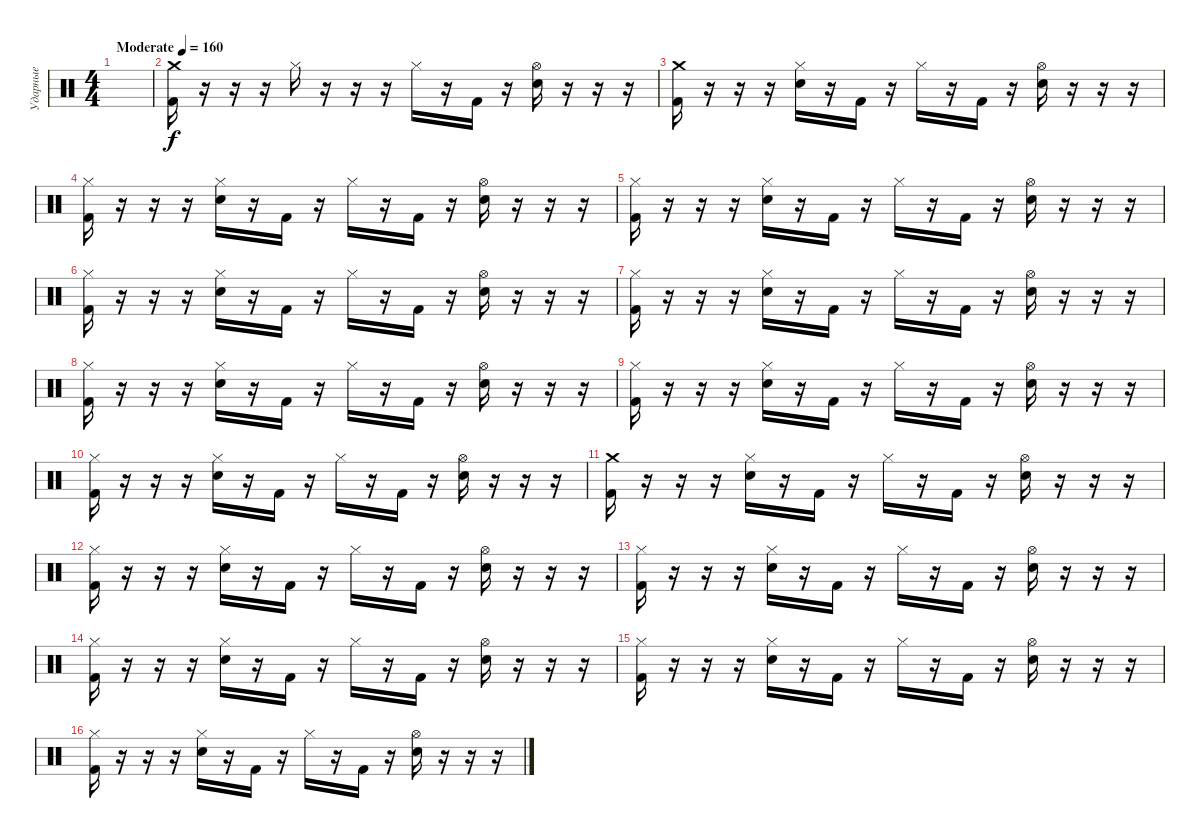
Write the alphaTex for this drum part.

\track ("Ударные" "Ударные") {instrument percussion}
\staff {score}
\articulation defaults
\ts (4 4)
\tempo (160 "Moderate")
\clef neutral
\ks c
|
("Crash medium (hit)" "Kick (hit) 2").16 r.16 r.16 r.16 "Hi-Hat (closed)".16 r.16 r.16 r.16 "Hi-Hat (closed)".16 r.16 "Kick (hit) 2".16 r.16 ("Hi-Hat (open)" "Electric Snare (hit)").16 r.16 r.16 r.16 |
("Crash medium (hit)" "Kick (hit) 2").16 r.16 r.16 r.16 ("Hi-Hat (closed)" "Electric Snare (hit)").16 r.16 "Kick (hit) 2".16 r.16 "Hi-Hat (closed)".16 r.16 "Kick (hit) 2".16 r.16 ("Hi-Hat (open)" "Electric Snare (hit)").16 r.16 r.16 r.16 |
("Hi-Hat (closed)" "Kick (hit) 2").16 r.16 r.16 r.16 ("Hi-Hat (closed)" "Electric Snare (hit)").16 r.16 "Kick (hit) 2".16 r.16 "Hi-Hat (closed)".16 r.16 "Kick (hit) 2".16 r.16 ("Hi-Hat (open)" "Electric Snare (hit)").16 r.16 r.16 r.16 |
("Hi-Hat (closed)" "Kick (hit) 2").16 r.16 r.16 r.16 ("Hi-Hat (closed)" "Electric Snare (hit)").16 r.16 "Kick (hit) 2".16 r.16 "Hi-Hat (closed)".16 r.16 "Kick (hit) 2".16 r.16 ("Hi-Hat (open)" "Electric Snare (hit)").16 r.16 r.16 r.16 |
("Hi-Hat (closed)" "Kick (hit) 2").16 r.16 r.16 r.16 ("Hi-Hat (closed)" "Electric Snare (hit)").16 r.16 "Kick (hit) 2".16 r.16 "Hi-Hat (closed)".16 r.16 "Kick (hit) 2".16 r.16 ("Hi-Hat (open)" "Electric Snare (hit)").16 r.16 r.16 r.16 |
("Hi-Hat (closed)" "Kick (hit) 2").16 r.16 r.16 r.16 ("Hi-Hat (closed)" "Electric Snare (hit)").16 r.16 "Kick (hit) 2".16 r.16 "Hi-Hat (closed)".16 r.16 "Kick (hit) 2".16 r.16 ("Hi-Hat (open)" "Electric Snare (hit)").16 r.16 r.16 r.16 |
("Hi-Hat (closed)" "Kick (hit) 2").16 r.16 r.16 r.16 ("Hi-Hat (closed)" "Electric Snare (hit)").16 r.16 "Kick (hit) 2".16 r.16 "Hi-Hat (closed)".16 r.16 "Kick (hit) 2".16 r.16 ("Hi-Hat (open)" "Electric Snare (hit)").16 r.16 r.16 r.16 |
("Hi-Hat (closed)" "Kick (hit) 2").16 r.16 r.16 r.16 ("Hi-Hat (closed)" "Electric Snare (hit)").16 r.16 "Kick (hit) 2".16 r.16 "Hi-Hat (closed)".16 r.16 "Kick (hit) 2".16 r.16 ("Hi-Hat (open)" "Electric Snare (hit)").16 r.16 r.16 r.16 |
("Hi-Hat (closed)" "Kick (hit) 2").16 r.16 r.16 r.16 ("Hi-Hat (closed)" "Electric Snare (hit)").16 r.16 "Kick (hit) 2".16 r.16 "Hi-Hat (closed)".16 r.16 "Kick (hit) 2".16 r.16 ("Hi-Hat (open)" "Electric Snare (hit)").16 r.16 r.16 r.16 |
("Crash medium (hit)" "Kick (hit) 2").16 r.16 r.16 r.16 ("Hi-Hat (closed)" "Electric Snare (hit)").16 r.16 "Kick (hit) 2".16 r.16 "Hi-Hat (closed)".16 r.16 "Kick (hit) 2".16 r.16 ("Hi-Hat (open)" "Electric Snare (hit)").16 r.16 r.16 r.16 |
("Hi-Hat (closed)" "Kick (hit) 2").16 r.16 r.16 r.16 ("Hi-Hat (closed)" "Electric Snare (hit)").16 r.16 "Kick (hit) 2".16 r.16 "Hi-Hat (closed)".16 r.16 "Kick (hit) 2".16 r.16 ("Hi-Hat (open)" "Electric Snare (hit)").16 r.16 r.16 r.16 |
("Hi-Hat (closed)" "Kick (hit) 2").16 r.16 r.16 r.16 ("Hi-Hat (closed)" "Electric Snare (hit)").16 r.16 "Kick (hit) 2".16 r.16 "Hi-Hat (closed)".16 r.16 "Kick (hit) 2".16 r.16 ("Hi-Hat (open)" "Electric Snare (hit)").16 r.16 r.16 r.16 |
("Hi-Hat (closed)" "Kick (hit) 2").16 r.16 r.16 r.16 ("Hi-Hat (closed)" "Electric Snare (hit)").16 r.16 "Kick (hit) 2".16 r.16 "Hi-Hat (closed)".16 r.16 "Kick (hit) 2".16 r.16 ("Hi-Hat (open)" "Electric Snare (hit)").16 r.16 r.16 r.16 |
("Hi-Hat (closed)" "Kick (hit) 2").16 r.16 r.16 r.16 ("Hi-Hat (closed)" "Electric Snare (hit)").16 r.16 "Kick (hit) 2".16 r.16 "Hi-Hat (closed)".16 r.16 "Kick (hit) 2".16 r.16 ("Hi-Hat (open)" "Electric Snare (hit)").16 r.16 r.16 r.16 |
("Hi-Hat (closed)" "Kick (hit) 2").16 r.16 r.16 r.16 ("Hi-Hat (closed)" "Electric Snare (hit)").16 r.16 "Kick (hit) 2".16 r.16 "Hi-Hat (closed)".16 r.16 "Kick (hit) 2".16 r.16 ("Hi-Hat (open)" "Electric Snare (hit)").16 r.16 r.16 r.16
